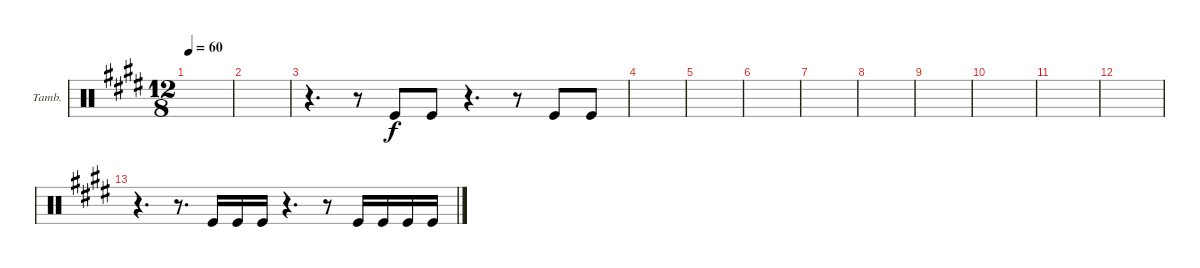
\defaultSystemsLayout 4
\bracketExtendMode groupsimilarinstruments
\firstSystemTrackNameOrientation horizontal
\otherSystemsTrackNameOrientation horizontal
\track ("Tambourine" "Tamb.") {instrument percussion}
\staff {score}
\articulation defaults
\ts (12 8)
\tempo 60
\clef neutral
\ks e
|
|
r.4{d} r.8 "Kick (hit)".8 "Kick (hit)".8 r.4{d} r.8 "Kick (hit)".8 "Kick (hit)".8 |
|
|
|
|
|
|
|
|
|
r.4{d} r.8{d} "Kick (hit)".16 "Kick (hit)".16 "Kick (hit)".16 r.4{d} r.8 "Kick (hit)".16 "Kick (hit)".16 "Kick (hit)".16 "Kick (hit)".16
